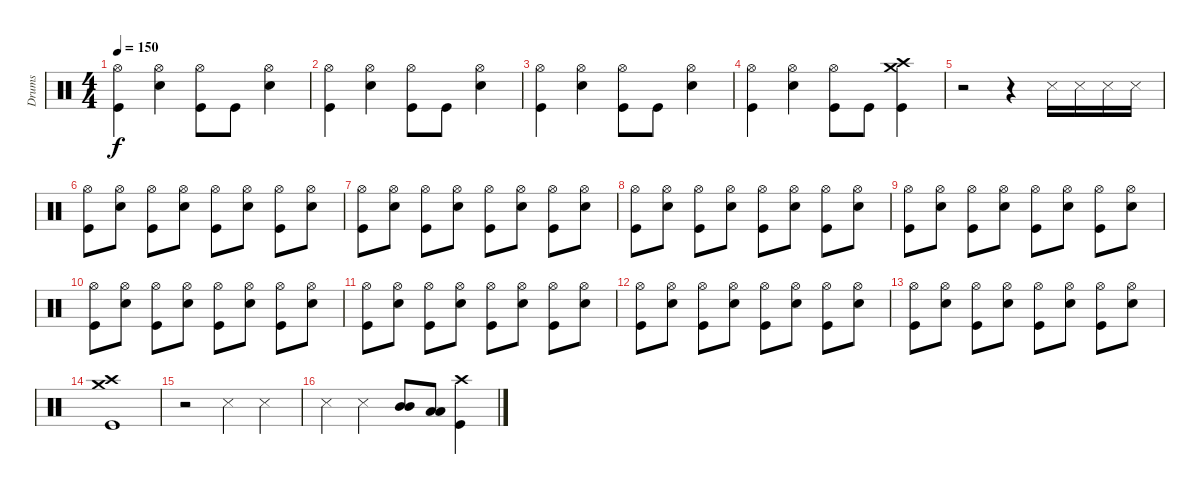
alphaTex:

\track ("Drums" "Drums") {instrument percussion}
\staff {score}
\articulation defaults
\ts (4 4)
\tempo 150
\clef neutral
\ks c
("Hi-Hat (open)" "Kick (hit)").4{dy f} ("Hi-Hat (open)" "Snare (hit) 2").4 ("Hi-Hat (open)" "Kick (hit)").8 "Kick (hit)".8 ("Hi-Hat (open)" "Snare (hit) 2").4 |
("Hi-Hat (open)" "Kick (hit)").4 ("Hi-Hat (open)" "Snare (hit) 2").4 ("Hi-Hat (open)" "Kick (hit)").8 "Kick (hit)".8 ("Hi-Hat (open)" "Snare (hit) 2").4 |
("Hi-Hat (open)" "Kick (hit)").4 ("Hi-Hat (open)" "Snare (hit) 2").4 ("Hi-Hat (open)" "Kick (hit)").8 "Kick (hit)".8 ("Hi-Hat (open)" "Snare (hit) 2").4 |
("Hi-Hat (open)" "Kick (hit)").4 ("Hi-Hat (open)" "Snare (hit) 2").4 ("Hi-Hat (open)" "Kick (hit)").8 "Kick (hit)".8 ("Crash high (hit)" "Crash medium (hit)" "Kick (hit)").4 |
r.2 r.4 "Snare (side stick) 3".16 "Snare (side stick) 3".16 "Snare (side stick) 3".16 "Snare (side stick) 3".16 |
("Hi-Hat (open)" "Kick (hit)").8 ("Hi-Hat (open)" "Snare (hit) 2").8 ("Hi-Hat (open)" "Kick (hit)").8 ("Hi-Hat (open)" "Snare (hit) 2").8 ("Hi-Hat (open)" "Kick (hit)").8 ("Hi-Hat (open)" "Snare (hit) 2").8 ("Hi-Hat (open)" "Kick (hit)").8 ("Hi-Hat (open)" "Snare (hit) 2").8 |
("Hi-Hat (open)" "Kick (hit)").8 ("Hi-Hat (open)" "Snare (hit) 2").8 ("Hi-Hat (open)" "Kick (hit)").8 ("Hi-Hat (open)" "Snare (hit) 2").8 ("Hi-Hat (open)" "Kick (hit)").8 ("Hi-Hat (open)" "Snare (hit) 2").8 ("Hi-Hat (open)" "Kick (hit)").8 ("Hi-Hat (open)" "Snare (hit) 2").8 |
("Hi-Hat (open)" "Kick (hit)").8 ("Hi-Hat (open)" "Snare (hit) 2").8 ("Hi-Hat (open)" "Kick (hit)").8 ("Hi-Hat (open)" "Snare (hit) 2").8 ("Hi-Hat (open)" "Kick (hit)").8 ("Hi-Hat (open)" "Snare (hit) 2").8 ("Hi-Hat (open)" "Kick (hit)").8 ("Hi-Hat (open)" "Snare (hit) 2").8 |
("Hi-Hat (open)" "Kick (hit)").8 ("Hi-Hat (open)" "Snare (hit) 2").8 ("Hi-Hat (open)" "Kick (hit)").8 ("Hi-Hat (open)" "Snare (hit) 2").8 ("Hi-Hat (open)" "Kick (hit)").8 ("Hi-Hat (open)" "Snare (hit) 2").8 ("Hi-Hat (open)" "Kick (hit)").8 ("Hi-Hat (open)" "Snare (hit) 2").8 |
("Hi-Hat (open)" "Kick (hit)").8 ("Hi-Hat (open)" "Snare (hit) 2").8 ("Hi-Hat (open)" "Kick (hit)").8 ("Hi-Hat (open)" "Snare (hit) 2").8 ("Hi-Hat (open)" "Kick (hit)").8 ("Hi-Hat (open)" "Snare (hit) 2").8 ("Hi-Hat (open)" "Kick (hit)").8 ("Hi-Hat (open)" "Snare (hit) 2").8 |
("Hi-Hat (open)" "Kick (hit)").8 ("Hi-Hat (open)" "Snare (hit) 2").8 ("Hi-Hat (open)" "Kick (hit)").8 ("Hi-Hat (open)" "Snare (hit) 2").8 ("Hi-Hat (open)" "Kick (hit)").8 ("Hi-Hat (open)" "Snare (hit) 2").8 ("Hi-Hat (open)" "Kick (hit)").8 ("Hi-Hat (open)" "Snare (hit) 2").8 |
("Hi-Hat (open)" "Kick (hit)").8 ("Hi-Hat (open)" "Snare (hit) 2").8 ("Hi-Hat (open)" "Kick (hit)").8 ("Hi-Hat (open)" "Snare (hit) 2").8 ("Hi-Hat (open)" "Kick (hit)").8 ("Hi-Hat (open)" "Snare (hit) 2").8 ("Hi-Hat (open)" "Kick (hit)").8 ("Hi-Hat (open)" "Snare (hit) 2").8 |
("Hi-Hat (open)" "Kick (hit)").8 ("Hi-Hat (open)" "Snare (hit) 2").8 ("Hi-Hat (open)" "Kick (hit)").8 ("Hi-Hat (open)" "Snare (hit) 2").8 ("Hi-Hat (open)" "Kick (hit)").8 ("Hi-Hat (open)" "Snare (hit) 2").8 ("Hi-Hat (open)" "Kick (hit)").8 ("Hi-Hat (open)" "Snare (hit) 2").8 |
("Crash high (hit)" "Crash medium (hit)" "Kick (hit)").1 |
r.2 "Snare (side stick) 3".4 "Snare (side stick) 3".4 |
"Snare (side stick) 3".4 "Snare (side stick) 3".4 ("Mid Tom (hit)" "Mid Tom (hit)").8 ("Low Tom (hit)" "Low Tom (hit)").8 ("Crash high (hit)" "Kick (hit)").4
